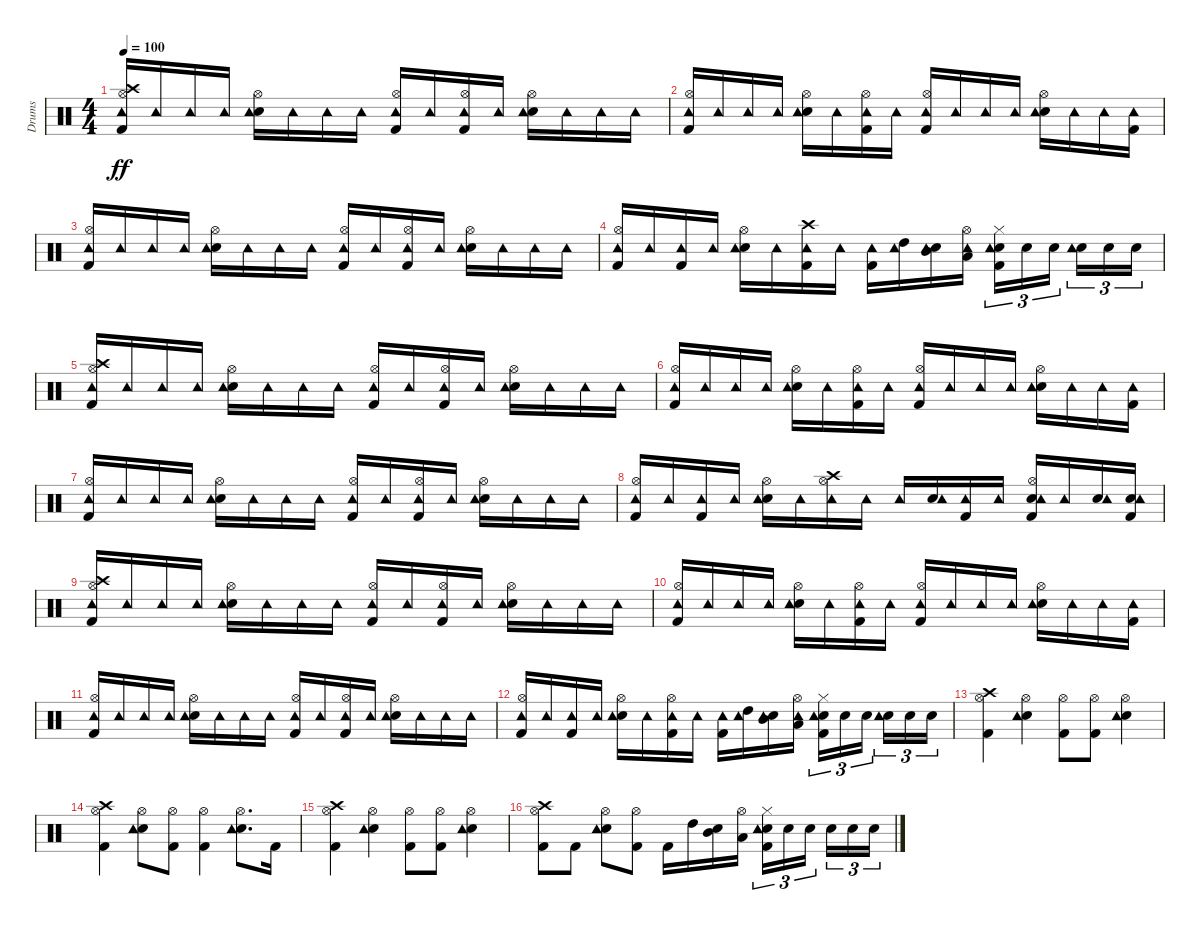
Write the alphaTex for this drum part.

\track ("Drums" "Drums") {instrument percussion}
\staff {score}
\articulation defaults
\ts (4 4)
\tempo 100
\clef neutral
\ks c
("Kick (hit) 2" "Hi-Hat (open)" "Crash high (hit)" "Tambourine (hit)").16{dy ff} "Tambourine (hit)".16 "Tambourine (hit)".16 "Tambourine (hit)".16 ("Snare (hit) 2" "Hi-Hat (open)" "Tambourine (hit)").16 "Tambourine (hit)".16 "Tambourine (hit)".16 "Tambourine (hit)".16 ("Kick (hit) 2" "Hi-Hat (open)" "Tambourine (hit)").16 "Tambourine (hit)".16 ("Kick (hit) 2" "Hi-Hat (open)" "Tambourine (hit)").16 "Tambourine (hit)".16 ("Snare (hit) 2" "Hi-Hat (open)" "Tambourine (hit)").16 "Tambourine (hit)".16 "Tambourine (hit)".16 "Tambourine (hit)".16 |
("Kick (hit) 2" "Hi-Hat (open)" "Tambourine (hit)").16 "Tambourine (hit)".16 "Tambourine (hit)".16 "Tambourine (hit)".16 ("Snare (hit) 2" "Hi-Hat (open)" "Tambourine (hit)").16 "Tambourine (hit)".16 ("Kick (hit) 2" "Hi-Hat (open)" "Tambourine (hit)").16 "Tambourine (hit)".16 ("Kick (hit) 2" "Hi-Hat (open)" "Tambourine (hit)").16 "Tambourine (hit)".16 "Tambourine (hit)".16 "Tambourine (hit)".16 ("Snare (hit) 2" "Hi-Hat (open)" "Tambourine (hit)").16 "Tambourine (hit)".16 "Tambourine (hit)".16 ("Kick (hit) 2" "Tambourine (hit)").16 |
("Kick (hit) 2" "Hi-Hat (open)" "Tambourine (hit)").16 "Tambourine (hit)".16 "Tambourine (hit)".16 "Tambourine (hit)".16 ("Snare (hit) 2" "Hi-Hat (open)" "Tambourine (hit)").16 "Tambourine (hit)".16 "Tambourine (hit)".16 "Tambourine (hit)".16 ("Kick (hit) 2" "Hi-Hat (open)" "Tambourine (hit)").16 "Tambourine (hit)".16 ("Kick (hit) 2" "Hi-Hat (open)" "Tambourine (hit)").16 "Tambourine (hit)".16 ("Snare (hit) 2" "Hi-Hat (open)" "Tambourine (hit)").16 "Tambourine (hit)".16 "Tambourine (hit)".16 "Tambourine (hit)".16 |
("Kick (hit) 2" "Hi-Hat (open)" "Tambourine (hit)").16 "Tambourine (hit)".16 ("Kick (hit) 2" "Tambourine (hit)").16 "Tambourine (hit)".16 ("Snare (hit) 2" "Hi-Hat (open)" "Tambourine (hit)").16 "Tambourine (hit)".16 ("Kick (hit) 2" "Crash high (hit)" "Tambourine (hit)").16 "Tambourine (hit)".16 ("Kick (hit) 2" "Tambourine (hit)").16 ("High Tom (hit)" "Tambourine (hit)").16 ("Snare (hit) 2" "Mid Tom (hit)" "Tambourine (hit)").16 ("Low Tom (hit)" "Hi-Hat (open)" "Tambourine (hit)").16 ("Kick (hit) 2" "Snare (hit) 2" "Hi-Hat (closed)" "Tambourine (hit)").16{tu (3 2)} "Snare (hit) 2".16{tu (3 2)} "Snare (hit) 2".16{tu (3 2) beam splitsecondary} ("Snare (hit) 2" "Tambourine (hit)").16{tu (3 2)} "Snare (hit) 2".16{tu (3 2)} "Snare (hit) 2".16{tu (3 2)} |
("Kick (hit) 2" "Hi-Hat (open)" "Crash high (hit)" "Tambourine (hit)").16 "Tambourine (hit)".16 "Tambourine (hit)".16 "Tambourine (hit)".16 ("Snare (hit) 2" "Hi-Hat (open)" "Tambourine (hit)").16 "Tambourine (hit)".16 "Tambourine (hit)".16 "Tambourine (hit)".16 ("Kick (hit) 2" "Hi-Hat (open)" "Tambourine (hit)").16 "Tambourine (hit)".16 ("Kick (hit) 2" "Hi-Hat (open)" "Tambourine (hit)").16 "Tambourine (hit)".16 ("Snare (hit) 2" "Hi-Hat (open)" "Tambourine (hit)").16 "Tambourine (hit)".16 "Tambourine (hit)".16 "Tambourine (hit)".16 |
("Kick (hit) 2" "Hi-Hat (open)" "Tambourine (hit)").16 "Tambourine (hit)".16 "Tambourine (hit)".16 "Tambourine (hit)".16 ("Snare (hit) 2" "Hi-Hat (open)" "Tambourine (hit)").16 "Tambourine (hit)".16 ("Kick (hit) 2" "Hi-Hat (open)" "Tambourine (hit)").16 "Tambourine (hit)".16 ("Kick (hit) 2" "Hi-Hat (open)" "Tambourine (hit)").16 "Tambourine (hit)".16 "Tambourine (hit)".16 "Tambourine (hit)".16 ("Snare (hit) 2" "Hi-Hat (open)" "Tambourine (hit)").16 "Tambourine (hit)".16 "Tambourine (hit)".16 ("Kick (hit) 2" "Tambourine (hit)").16 |
("Kick (hit) 2" "Hi-Hat (open)" "Tambourine (hit)").16 "Tambourine (hit)".16 "Tambourine (hit)".16 "Tambourine (hit)".16 ("Snare (hit) 2" "Hi-Hat (open)" "Tambourine (hit)").16 "Tambourine (hit)".16 "Tambourine (hit)".16 "Tambourine (hit)".16 ("Kick (hit) 2" "Hi-Hat (open)" "Tambourine (hit)").16 "Tambourine (hit)".16 ("Kick (hit) 2" "Hi-Hat (open)" "Tambourine (hit)").16 "Tambourine (hit)".16 ("Snare (hit) 2" "Hi-Hat (open)" "Tambourine (hit)").16 "Tambourine (hit)".16 "Tambourine (hit)".16 "Tambourine (hit)".16 |
("Kick (hit) 2" "Hi-Hat (open)" "Tambourine (hit)").16 "Tambourine (hit)".16 ("Kick (hit) 2" "Tambourine (hit)").16 "Tambourine (hit)".16 ("Snare (hit) 2" "Hi-Hat (open)" "Tambourine (hit)").16 "Tambourine (hit)".16 ("Hi-Hat (open)" "Crash high (hit)" "Tambourine (hit)").16 "Tambourine (hit)".16 "Tambourine (hit)".16 ("Snare (hit) 2" "Tambourine (hit)").16 ("Kick (hit) 2" "Tambourine (hit)").16 "Tambourine (hit)".16 ("Kick (hit) 2" "Snare (hit) 2" "Hi-Hat (open)" "Tambourine (hit)").16 "Tambourine (hit)".16 ("Snare (hit) 2" "Tambourine (hit)").16 ("Kick (hit) 2" "Snare (hit) 2" "Tambourine (hit)").16 |
("Kick (hit) 2" "Hi-Hat (open)" "Crash high (hit)" "Tambourine (hit)").16 "Tambourine (hit)".16 "Tambourine (hit)".16 "Tambourine (hit)".16 ("Snare (hit) 2" "Hi-Hat (open)" "Tambourine (hit)").16 "Tambourine (hit)".16 "Tambourine (hit)".16 "Tambourine (hit)".16 ("Kick (hit) 2" "Hi-Hat (open)" "Tambourine (hit)").16 "Tambourine (hit)".16 ("Kick (hit) 2" "Hi-Hat (open)" "Tambourine (hit)").16 "Tambourine (hit)".16 ("Snare (hit) 2" "Hi-Hat (open)" "Tambourine (hit)").16 "Tambourine (hit)".16 "Tambourine (hit)".16 "Tambourine (hit)".16 |
("Kick (hit) 2" "Hi-Hat (open)" "Tambourine (hit)").16 "Tambourine (hit)".16 "Tambourine (hit)".16 "Tambourine (hit)".16 ("Snare (hit) 2" "Hi-Hat (open)" "Tambourine (hit)").16 "Tambourine (hit)".16 ("Kick (hit) 2" "Hi-Hat (open)" "Tambourine (hit)").16 "Tambourine (hit)".16 ("Kick (hit) 2" "Hi-Hat (open)" "Tambourine (hit)").16 "Tambourine (hit)".16 "Tambourine (hit)".16 "Tambourine (hit)".16 ("Snare (hit) 2" "Hi-Hat (open)" "Tambourine (hit)").16 "Tambourine (hit)".16 "Tambourine (hit)".16 ("Kick (hit) 2" "Tambourine (hit)").16 |
("Kick (hit) 2" "Hi-Hat (open)" "Tambourine (hit)").16 "Tambourine (hit)".16 "Tambourine (hit)".16 "Tambourine (hit)".16 ("Snare (hit) 2" "Hi-Hat (open)" "Tambourine (hit)").16 "Tambourine (hit)".16 "Tambourine (hit)".16 "Tambourine (hit)".16 ("Kick (hit) 2" "Hi-Hat (open)" "Tambourine (hit)").16 "Tambourine (hit)".16 ("Kick (hit) 2" "Hi-Hat (open)" "Tambourine (hit)").16 "Tambourine (hit)".16 ("Snare (hit) 2" "Hi-Hat (open)" "Tambourine (hit)").16 "Tambourine (hit)".16 "Tambourine (hit)".16 "Tambourine (hit)".16 |
("Kick (hit) 2" "Hi-Hat (open)" "Tambourine (hit)").16 "Tambourine (hit)".16 ("Kick (hit) 2" "Tambourine (hit)").16 "Tambourine (hit)".16 ("Snare (hit) 2" "Hi-Hat (open)" "Tambourine (hit)").16 "Tambourine (hit)".16 ("Kick (hit) 2" "Hi-Hat (open)" "Tambourine (hit)").16 "Tambourine (hit)".16 ("Kick (hit) 2" "Tambourine (hit)").16 ("High Tom (hit)" "Tambourine (hit)").16 ("Snare (hit) 2" "Mid Tom (hit)" "Tambourine (hit)").16 ("Low Tom (hit)" "Hi-Hat (open)" "Tambourine (hit)").16 ("Kick (hit) 2" "Snare (hit) 2" "Hi-Hat (closed)" "Tambourine (hit)").16{tu (3 2)} "Snare (hit) 2".16{tu (3 2)} "Snare (hit) 2".16{tu (3 2) beam splitsecondary} ("Snare (hit) 2" "Tambourine (hit)").16{tu (3 2)} "Snare (hit) 2".16{tu (3 2)} "Snare (hit) 2".16{tu (3 2)} |
("Kick (hit) 2" "Hi-Hat (open)" "Crash high (hit)").4 ("Snare (hit) 2" "Hi-Hat (open)" "Tambourine (hit)").4 ("Kick (hit) 2" "Hi-Hat (open)").8 ("Kick (hit) 2" "Hi-Hat (open)").8 ("Snare (hit) 2" "Hi-Hat (open)" "Tambourine (hit)").4 |
("Kick (hit) 2" "Hi-Hat (open)" "Crash high (hit)").4 ("Snare (hit) 2" "Hi-Hat (open)" "Tambourine (hit)").8 ("Kick (hit) 2" "Hi-Hat (open)").8 ("Kick (hit) 2" "Hi-Hat (open)").4 ("Snare (hit) 2" "Hi-Hat (open)" "Tambourine (hit)").8{d} "Kick (hit) 2".16 |
("Kick (hit) 2" "Hi-Hat (open)" "Crash high (hit)").4 ("Snare (hit) 2" "Hi-Hat (open)" "Tambourine (hit)").4 ("Kick (hit) 2" "Hi-Hat (open)").8 ("Kick (hit) 2" "Hi-Hat (open)").8 ("Snare (hit) 2" "Hi-Hat (open)" "Tambourine (hit)").4 |
("Kick (hit) 2" "Hi-Hat (open)" "Crash high (hit)").8 "Kick (hit) 2".8 ("Snare (hit) 2" "Hi-Hat (open)" "Tambourine (hit)").8 ("Kick (hit) 2" "Hi-Hat (open)").8 "Kick (hit) 2".16 "High Tom (hit)".16 ("Snare (hit) 2" "Mid Tom (hit)").16 ("Low Tom (hit)" "Hi-Hat (open)").16 ("Kick (hit) 2" "Snare (hit) 2" "Hi-Hat (closed)" "Tambourine (hit)").16{tu (3 2)} "Snare (hit) 2".16{tu (3 2)} "Snare (hit) 2".16{tu (3 2) beam splitsecondary} "Snare (hit) 2".16{tu (3 2)} "Snare (hit) 2".16{tu (3 2)} "Snare (hit) 2".16{tu (3 2)}
